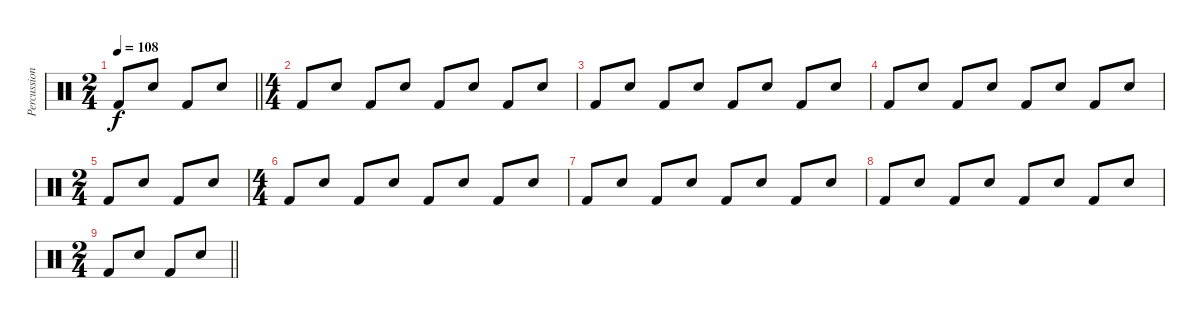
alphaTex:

\track ("Percussion" "Percussion") {instrument percussion}
\staff {score}
\articulation defaults
\ts (2 4)
\tempo 108
\clef neutral
\barLineRight lightlight
\ks c "Kick (hit) 2".8{dy f} "Snare (hit) 2".8 "Kick (hit) 2".8 "Snare (hit) 2".8
|
\ts (4 4)
"Kick (hit) 2".8 "Snare (hit) 2".8 "Kick (hit) 2".8 "Snare (hit) 2".8 "Kick (hit) 2".8 "Snare (hit) 2".8 "Kick (hit) 2".8 "Snare (hit) 2".8 |
"Kick (hit) 2".8 "Snare (hit) 2".8 "Kick (hit) 2".8 "Snare (hit) 2".8 "Kick (hit) 2".8 "Snare (hit) 2".8 "Kick (hit) 2".8 "Snare (hit) 2".8 |
"Kick (hit) 2".8 "Snare (hit) 2".8 "Kick (hit) 2".8 "Snare (hit) 2".8 "Kick (hit) 2".8 "Snare (hit) 2".8 "Kick (hit) 2".8 "Snare (hit) 2".8 |
\ts (2 4)
"Kick (hit) 2".8 "Snare (hit) 2".8 "Kick (hit) 2".8 "Snare (hit) 2".8 |
\ts (4 4)
"Kick (hit) 2".8 "Snare (hit) 2".8 "Kick (hit) 2".8 "Snare (hit) 2".8 "Kick (hit) 2".8 "Snare (hit) 2".8 "Kick (hit) 2".8 "Snare (hit) 2".8 |
"Kick (hit) 2".8 "Snare (hit) 2".8 "Kick (hit) 2".8 "Snare (hit) 2".8 "Kick (hit) 2".8 "Snare (hit) 2".8 "Kick (hit) 2".8 "Snare (hit) 2".8 |
"Kick (hit) 2".8 "Snare (hit) 2".8 "Kick (hit) 2".8 "Snare (hit) 2".8 "Kick (hit) 2".8 "Snare (hit) 2".8 "Kick (hit) 2".8 "Snare (hit) 2".8 |
\ts (2 4)
\barLineRight lightlight "Kick (hit) 2".8 "Snare (hit) 2".8 "Kick (hit) 2".8 "Snare (hit) 2".8
